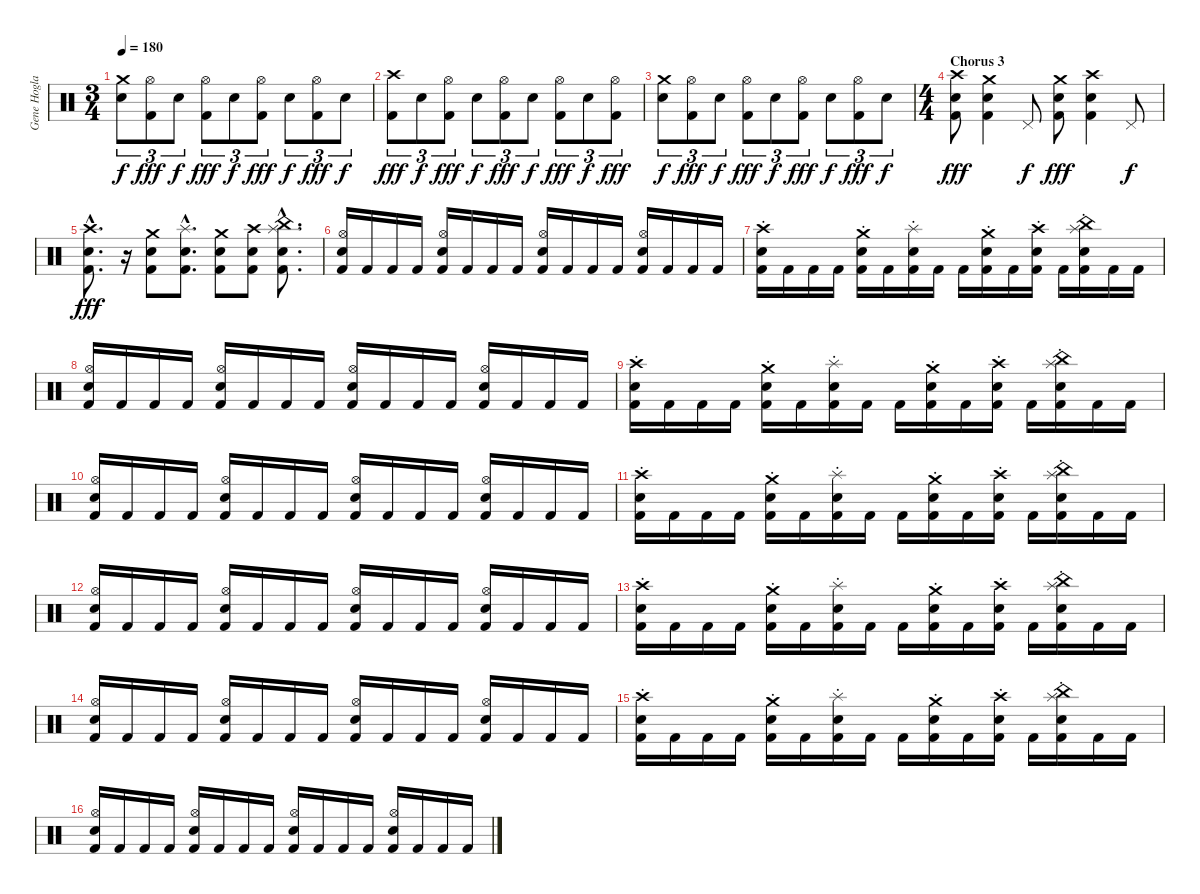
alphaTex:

\track ("Gene Hoglan" "Gene Hogla") {instrument percussion}
\staff {score}
\articulation defaults
\ts (3 4)
\tempo 180
\clef neutral
\ks c
("Crash medium (hit)" "Snare (hit) 2").8{tu (3 2) dy f} ("Hi-Hat (open)" "Kick (hit) 2").8{tu (3 2) dy fff} "Snare (hit) 2".8{tu (3 2) dy f} ("Hi-Hat (open)" "Kick (hit) 2").8{tu (3 2) dy fff} "Snare (hit) 2".8{tu (3 2) dy f} ("Hi-Hat (open)" "Kick (hit) 2").8{tu (3 2) dy fff} "Snare (hit) 2".8{tu (3 2) dy f} ("Hi-Hat (open)" "Kick (hit) 2").8{tu (3 2) dy fff} "Snare (hit) 2".8{tu (3 2) dy f} |
("Crash high (hit)" "Kick (hit) 2").8{tu (3 2) dy fff} "Snare (hit) 2".8{tu (3 2) dy f} ("Hi-Hat (open)" "Kick (hit) 2").8{tu (3 2) dy fff} "Snare (hit) 2".8{tu (3 2) dy f} ("Hi-Hat (open)" "Kick (hit) 2").8{tu (3 2) dy fff} "Snare (hit) 2".8{tu (3 2) dy f} ("Hi-Hat (open)" "Kick (hit) 2").8{tu (3 2) dy fff} "Snare (hit) 2".8{tu (3 2) dy f} ("Hi-Hat (open)" "Kick (hit) 2").8{tu (3 2) dy fff} |
("Crash medium (hit)" "Snare (hit) 2").8{tu (3 2) dy f} ("Hi-Hat (open)" "Kick (hit) 2").8{tu (3 2) dy fff} "Snare (hit) 2".8{tu (3 2) dy f} ("Hi-Hat (open)" "Kick (hit) 2").8{tu (3 2) dy fff} "Snare (hit) 2".8{tu (3 2) dy f} ("Hi-Hat (open)" "Kick (hit) 2").8{tu (3 2) dy fff} "Snare (hit) 2".8{tu (3 2) dy f} ("Hi-Hat (open)" "Kick (hit) 2").8{tu (3 2) dy fff} "Snare (hit) 2".8{tu (3 2) dy f} |
\ts (4 4)
\section ("" "Chorus 3")
("Crash high (hit)" "Snare (hit) 2" "Kick (hit) 2").8{dy fff} ("Crash medium (hit)" "Snare (hit) 2" "Kick (hit) 2").4 "Pedal Hi-Hat (hit)".8{dy f} ("Crash medium (hit)" "Snare (hit) 2" "Kick (hit) 2").8{dy fff} ("Crash high (hit)" "Snare (hit) 2" "Kick (hit) 2").4 "Pedal Hi-Hat (hit)".8{dy f} |
("Crash high (hit)"{hac} "Snare (hit) 2"{hac} "Kick (hit) 2"{hac}).8{d dy fff} r.16 ("Crash medium (hit)" "Snare (hit) 2" "Kick (hit) 2").8 ("Splash (hit)"{hac} "Snare (hit) 2"{hac} "Kick (hit) 2"{hac}).8{d} ("Crash medium (hit)" "Snare (hit) 2" "Kick (hit) 2").8 ("Crash high (hit)" "Snare (hit) 2" "Kick (hit) 2").8 ("China (hit)"{hac} "Splash (hit)"{hac} "Snare (hit) 2"{hac} "Kick (hit) 2"{hac}).8{d} |
("Hi-Hat (open)" "Snare (hit) 2" "Kick (hit) 2").16 "Kick (hit) 2".16 "Kick (hit) 2".16 "Kick (hit) 2".16 ("Hi-Hat (open)" "Snare (hit) 2" "Kick (hit) 2").16 "Kick (hit) 2".16 "Kick (hit) 2".16 "Kick (hit) 2".16 ("Hi-Hat (open)" "Snare (hit) 2" "Kick (hit) 2").16 "Kick (hit) 2".16 "Kick (hit) 2".16 "Kick (hit) 2".16 ("Hi-Hat (open)" "Snare (hit) 2" "Kick (hit) 2").16 "Kick (hit) 2".16 "Kick (hit) 2".16 "Kick (hit) 2".16 |
("Crash high (hit)"{st} "Snare (hit) 2" "Kick (hit) 2").16 "Kick (hit) 2".16 "Kick (hit) 2".16 "Kick (hit) 2".16 ("Crash medium (hit)"{st} "Snare (hit) 2" "Kick (hit) 2").16 "Kick (hit) 2".16 ("Splash (hit)"{st} "Snare (hit) 2" "Kick (hit) 2").16 "Kick (hit) 2".16 "Kick (hit) 2".16 ("Crash medium (hit)"{st} "Snare (hit) 2" "Kick (hit) 2").16 "Kick (hit) 2".16 ("Crash high (hit)"{st} "Snare (hit) 2" "Kick (hit) 2").16 "Kick (hit) 2".16 ("China (hit)"{st} "Splash (hit)"{st} "Snare (hit) 2" "Kick (hit) 2").16 "Kick (hit) 2".16 "Kick (hit) 2".16 |
("Hi-Hat (open)" "Snare (hit) 2" "Kick (hit) 2").16 "Kick (hit) 2".16 "Kick (hit) 2".16 "Kick (hit) 2".16 ("Hi-Hat (open)" "Snare (hit) 2" "Kick (hit) 2").16 "Kick (hit) 2".16 "Kick (hit) 2".16 "Kick (hit) 2".16 ("Hi-Hat (open)" "Snare (hit) 2" "Kick (hit) 2").16 "Kick (hit) 2".16 "Kick (hit) 2".16 "Kick (hit) 2".16 ("Hi-Hat (open)" "Snare (hit) 2" "Kick (hit) 2").16 "Kick (hit) 2".16 "Kick (hit) 2".16 "Kick (hit) 2".16 |
("Crash high (hit)"{st} "Snare (hit) 2" "Kick (hit) 2").16 "Kick (hit) 2".16 "Kick (hit) 2".16 "Kick (hit) 2".16 ("Crash medium (hit)"{st} "Snare (hit) 2" "Kick (hit) 2").16 "Kick (hit) 2".16 ("Splash (hit)"{st} "Snare (hit) 2" "Kick (hit) 2").16 "Kick (hit) 2".16 "Kick (hit) 2".16 ("Crash medium (hit)"{st} "Snare (hit) 2" "Kick (hit) 2").16 "Kick (hit) 2".16 ("Crash high (hit)"{st} "Snare (hit) 2" "Kick (hit) 2").16 "Kick (hit) 2".16 ("China (hit)"{st} "Splash (hit)"{st} "Snare (hit) 2" "Kick (hit) 2").16 "Kick (hit) 2".16 "Kick (hit) 2".16 |
("Hi-Hat (open)" "Snare (hit) 2" "Kick (hit) 2").16 "Kick (hit) 2".16 "Kick (hit) 2".16 "Kick (hit) 2".16 ("Hi-Hat (open)" "Snare (hit) 2" "Kick (hit) 2").16 "Kick (hit) 2".16 "Kick (hit) 2".16 "Kick (hit) 2".16 ("Hi-Hat (open)" "Snare (hit) 2" "Kick (hit) 2").16 "Kick (hit) 2".16 "Kick (hit) 2".16 "Kick (hit) 2".16 ("Hi-Hat (open)" "Snare (hit) 2" "Kick (hit) 2").16 "Kick (hit) 2".16 "Kick (hit) 2".16 "Kick (hit) 2".16 |
("Crash high (hit)"{st} "Snare (hit) 2" "Kick (hit) 2").16 "Kick (hit) 2".16 "Kick (hit) 2".16 "Kick (hit) 2".16 ("Crash medium (hit)"{st} "Snare (hit) 2" "Kick (hit) 2").16 "Kick (hit) 2".16 ("Splash (hit)"{st} "Snare (hit) 2" "Kick (hit) 2").16 "Kick (hit) 2".16 "Kick (hit) 2".16 ("Crash medium (hit)"{st} "Snare (hit) 2" "Kick (hit) 2").16 "Kick (hit) 2".16 ("Crash high (hit)"{st} "Snare (hit) 2" "Kick (hit) 2").16 "Kick (hit) 2".16 ("China (hit)"{st} "Splash (hit)"{st} "Snare (hit) 2" "Kick (hit) 2").16 "Kick (hit) 2".16 "Kick (hit) 2".16 |
("Hi-Hat (open)" "Snare (hit) 2" "Kick (hit) 2").16 "Kick (hit) 2".16 "Kick (hit) 2".16 "Kick (hit) 2".16 ("Hi-Hat (open)" "Snare (hit) 2" "Kick (hit) 2").16 "Kick (hit) 2".16 "Kick (hit) 2".16 "Kick (hit) 2".16 ("Hi-Hat (open)" "Snare (hit) 2" "Kick (hit) 2").16 "Kick (hit) 2".16 "Kick (hit) 2".16 "Kick (hit) 2".16 ("Hi-Hat (open)" "Snare (hit) 2" "Kick (hit) 2").16 "Kick (hit) 2".16 "Kick (hit) 2".16 "Kick (hit) 2".16 |
("Crash high (hit)"{st} "Snare (hit) 2" "Kick (hit) 2").16 "Kick (hit) 2".16 "Kick (hit) 2".16 "Kick (hit) 2".16 ("Crash medium (hit)"{st} "Snare (hit) 2" "Kick (hit) 2").16 "Kick (hit) 2".16 ("Splash (hit)"{st} "Snare (hit) 2" "Kick (hit) 2").16 "Kick (hit) 2".16 "Kick (hit) 2".16 ("Crash medium (hit)"{st} "Snare (hit) 2" "Kick (hit) 2").16 "Kick (hit) 2".16 ("Crash high (hit)"{st} "Snare (hit) 2" "Kick (hit) 2").16 "Kick (hit) 2".16 ("China (hit)"{st} "Splash (hit)"{st} "Snare (hit) 2" "Kick (hit) 2").16 "Kick (hit) 2".16 "Kick (hit) 2".16 |
("Hi-Hat (open)" "Snare (hit) 2" "Kick (hit) 2").16 "Kick (hit) 2".16 "Kick (hit) 2".16 "Kick (hit) 2".16 ("Hi-Hat (open)" "Snare (hit) 2" "Kick (hit) 2").16 "Kick (hit) 2".16 "Kick (hit) 2".16 "Kick (hit) 2".16 ("Hi-Hat (open)" "Snare (hit) 2" "Kick (hit) 2").16 "Kick (hit) 2".16 "Kick (hit) 2".16 "Kick (hit) 2".16 ("Hi-Hat (open)" "Snare (hit) 2" "Kick (hit) 2").16 "Kick (hit) 2".16 "Kick (hit) 2".16 "Kick (hit) 2".16 |
("Crash high (hit)"{st} "Snare (hit) 2" "Kick (hit) 2").16 "Kick (hit) 2".16 "Kick (hit) 2".16 "Kick (hit) 2".16 ("Crash medium (hit)"{st} "Snare (hit) 2" "Kick (hit) 2").16 "Kick (hit) 2".16 ("Splash (hit)"{st} "Snare (hit) 2" "Kick (hit) 2").16 "Kick (hit) 2".16 "Kick (hit) 2".16 ("Crash medium (hit)"{st} "Snare (hit) 2" "Kick (hit) 2").16 "Kick (hit) 2".16 ("Crash high (hit)"{st} "Snare (hit) 2" "Kick (hit) 2").16 "Kick (hit) 2".16 ("China (hit)"{st} "Splash (hit)"{st} "Snare (hit) 2" "Kick (hit) 2").16 "Kick (hit) 2".16 "Kick (hit) 2".16 |
("Hi-Hat (open)" "Snare (hit) 2" "Kick (hit) 2").16 "Kick (hit) 2".16 "Kick (hit) 2".16 "Kick (hit) 2".16 ("Hi-Hat (open)" "Snare (hit) 2" "Kick (hit) 2").16 "Kick (hit) 2".16 "Kick (hit) 2".16 "Kick (hit) 2".16 ("Hi-Hat (open)" "Snare (hit) 2" "Kick (hit) 2").16 "Kick (hit) 2".16 "Kick (hit) 2".16 "Kick (hit) 2".16 ("Hi-Hat (open)" "Snare (hit) 2" "Kick (hit) 2").16 "Kick (hit) 2".16 "Kick (hit) 2".16 "Kick (hit) 2".16
